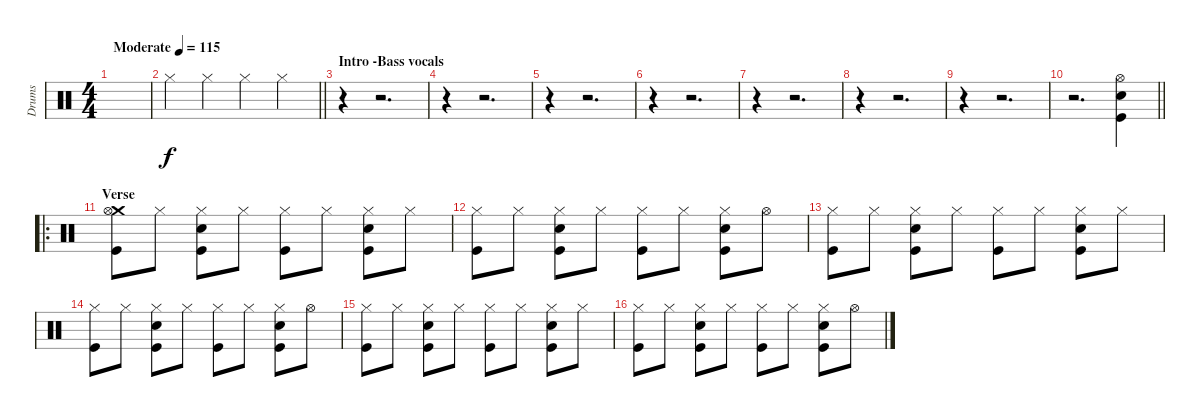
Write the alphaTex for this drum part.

\track ("Drums" "Drums") {instrument percussion}
\staff {score}
\articulation defaults
\ts (4 4)
\tempo (115 "Moderate")
\clef neutral
\ks c
|
\barLineRight lightlight "Hi-Hat (closed)".4 "Hi-Hat (closed)".4 "Hi-Hat (closed)".4 "Hi-Hat (closed)".4
|
\section ("" "Intro -Bass vocals")
r.4 r.2{d} |
r.4 r.2{d} |
r.4 r.2{d} |
r.4 r.2{d} |
r.4 r.2{d} |
r.4 r.2{d} |
r.4 r.2{d} |
\barLineRight lightlight
r.2{d} ("Hi-Hat (open)" "Snare (hit) 2" "Kick (hit)").4 |
\ro
\section ("" "Verse")
("Crash medium (hit)" "Hi-Hat (open)" "Kick (hit)").8 "Hi-Hat (closed)".8 ("Hi-Hat (closed)" "Snare (hit) 2" "Kick (hit)").8 "Hi-Hat (closed)".8 ("Hi-Hat (closed)" "Kick (hit)").8 "Hi-Hat (closed)".8 ("Hi-Hat (closed)" "Snare (hit) 2" "Kick (hit)").8 "Hi-Hat (closed)".8 |
("Hi-Hat (closed)" "Kick (hit)").8 "Hi-Hat (closed)".8 ("Hi-Hat (closed)" "Snare (hit) 2" "Kick (hit)").8 "Hi-Hat (closed)".8 ("Hi-Hat (closed)" "Kick (hit)").8 "Hi-Hat (closed)".8 ("Hi-Hat (closed)" "Snare (hit) 2" "Kick (hit)").8 "Hi-Hat (open)".8 |
("Hi-Hat (closed)" "Kick (hit)").8 "Hi-Hat (closed)".8 ("Hi-Hat (closed)" "Snare (hit) 2" "Kick (hit)").8 "Hi-Hat (closed)".8 ("Hi-Hat (closed)" "Kick (hit)").8 "Hi-Hat (closed)".8 ("Hi-Hat (closed)" "Snare (hit) 2" "Kick (hit)").8 "Hi-Hat (closed)".8 |
("Hi-Hat (closed)" "Kick (hit)").8 "Hi-Hat (closed)".8 ("Hi-Hat (closed)" "Snare (hit) 2" "Kick (hit)").8 "Hi-Hat (closed)".8 ("Hi-Hat (closed)" "Kick (hit)").8 "Hi-Hat (closed)".8 ("Hi-Hat (closed)" "Snare (hit) 2" "Kick (hit)").8 "Hi-Hat (open)".8 |
("Hi-Hat (closed)" "Kick (hit)").8 "Hi-Hat (closed)".8 ("Hi-Hat (closed)" "Snare (hit) 2" "Kick (hit)").8 "Hi-Hat (closed)".8 ("Hi-Hat (closed)" "Kick (hit)").8 "Hi-Hat (closed)".8 ("Hi-Hat (closed)" "Snare (hit) 2" "Kick (hit)").8 "Hi-Hat (closed)".8 |
("Hi-Hat (closed)" "Kick (hit)").8 "Hi-Hat (closed)".8 ("Hi-Hat (closed)" "Snare (hit) 2" "Kick (hit)").8 "Hi-Hat (closed)".8 ("Hi-Hat (closed)" "Kick (hit)").8 "Hi-Hat (closed)".8 ("Hi-Hat (closed)" "Snare (hit) 2" "Kick (hit)").8 "Hi-Hat (open)".8
